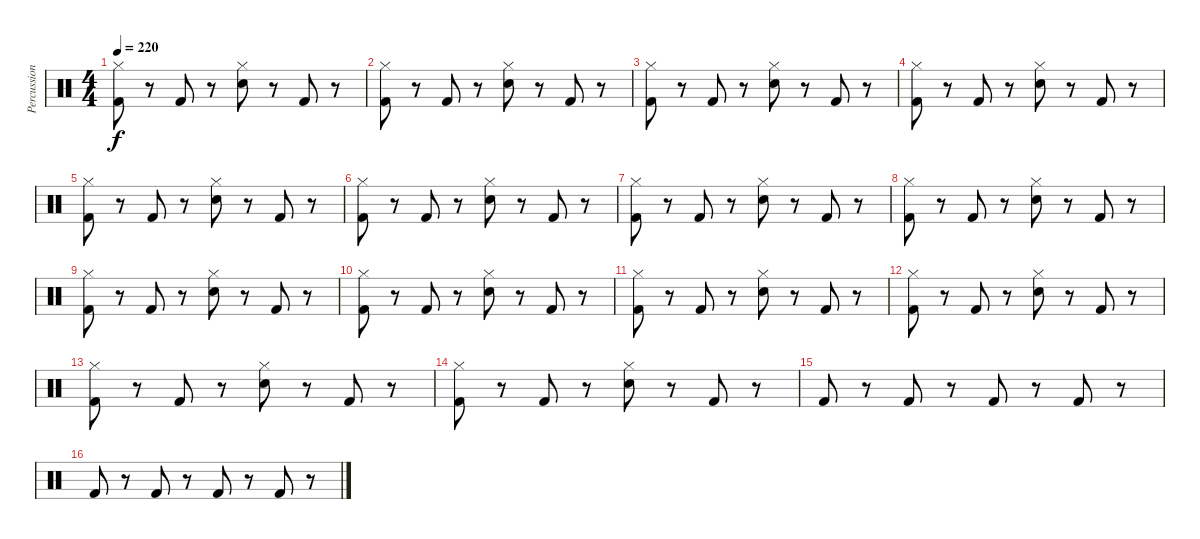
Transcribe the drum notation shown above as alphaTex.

\track ("Percussion" "Percussion") {instrument percussion}
\staff {score}
\articulation defaults
\ts (4 4)
\tempo 220
\clef neutral
\ks c
("Kick (hit) 2" "Hi-Hat (closed)").8{dy f} r.8 "Kick (hit) 2".8 r.8 ("Snare (hit) 2" "Hi-Hat (closed)").8 r.8 "Kick (hit) 2".8 r.8 |
("Kick (hit) 2" "Hi-Hat (closed)").8 r.8 "Kick (hit) 2".8 r.8 ("Snare (hit) 2" "Hi-Hat (closed)").8 r.8 "Kick (hit) 2".8 r.8 |
("Kick (hit) 2" "Hi-Hat (closed)").8 r.8 "Kick (hit) 2".8 r.8 ("Snare (hit) 2" "Hi-Hat (closed)").8 r.8 "Kick (hit) 2".8 r.8 |
("Kick (hit) 2" "Hi-Hat (closed)").8 r.8 "Kick (hit) 2".8 r.8 ("Snare (hit) 2" "Hi-Hat (closed)").8 r.8 "Kick (hit) 2".8 r.8 |
("Kick (hit) 2" "Hi-Hat (closed)").8 r.8 "Kick (hit) 2".8 r.8 ("Snare (hit) 2" "Hi-Hat (closed)").8 r.8 "Kick (hit) 2".8 r.8 |
("Kick (hit) 2" "Hi-Hat (closed)").8 r.8 "Kick (hit) 2".8 r.8 ("Snare (hit) 2" "Hi-Hat (closed)").8 r.8 "Kick (hit) 2".8 r.8 |
("Kick (hit) 2" "Hi-Hat (closed)").8 r.8 "Kick (hit) 2".8 r.8 ("Snare (hit) 2" "Hi-Hat (closed)").8 r.8 "Kick (hit) 2".8 r.8 |
("Kick (hit) 2" "Hi-Hat (closed)").8 r.8 "Kick (hit) 2".8 r.8 ("Snare (hit) 2" "Hi-Hat (closed)").8 r.8 "Kick (hit) 2".8 r.8 |
("Kick (hit) 2" "Hi-Hat (closed)").8 r.8 "Kick (hit) 2".8 r.8 ("Snare (hit) 2" "Hi-Hat (closed)").8 r.8 "Kick (hit) 2".8 r.8 |
("Kick (hit) 2" "Hi-Hat (closed)").8 r.8 "Kick (hit) 2".8 r.8 ("Snare (hit) 2" "Hi-Hat (closed)").8 r.8 "Kick (hit) 2".8 r.8 |
("Kick (hit) 2" "Hi-Hat (closed)").8 r.8 "Kick (hit) 2".8 r.8 ("Snare (hit) 2" "Hi-Hat (closed)").8 r.8 "Kick (hit) 2".8 r.8 |
("Kick (hit) 2" "Hi-Hat (closed)").8 r.8 "Kick (hit) 2".8 r.8 ("Snare (hit) 2" "Hi-Hat (closed)").8 r.8 "Kick (hit) 2".8 r.8 |
("Kick (hit) 2" "Hi-Hat (closed)").8 r.8 "Kick (hit) 2".8 r.8 ("Snare (hit) 2" "Hi-Hat (closed)").8 r.8 "Kick (hit) 2".8 r.8 |
("Kick (hit) 2" "Hi-Hat (closed)").8 r.8 "Kick (hit) 2".8 r.8 ("Snare (hit) 2" "Hi-Hat (closed)").8 r.8 "Kick (hit) 2".8 r.8 |
"Kick (hit) 2".8 r.8 "Kick (hit) 2".8 r.8 "Kick (hit) 2".8 r.8 "Kick (hit) 2".8 r.8 |
"Kick (hit) 2".8 r.8 "Kick (hit) 2".8 r.8 "Kick (hit) 2".8 r.8 "Kick (hit) 2".8 r.8
